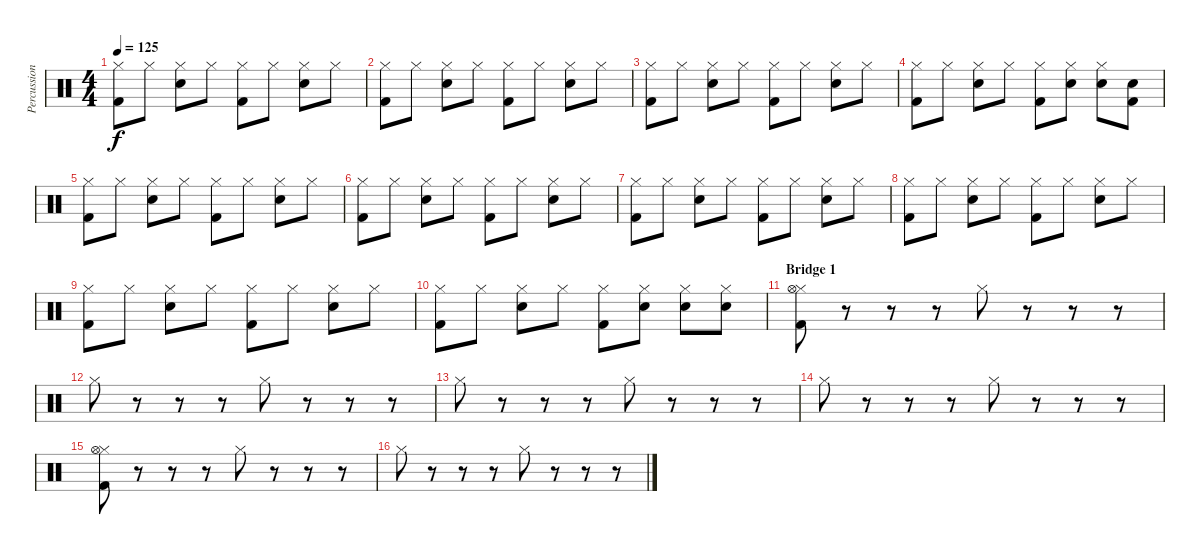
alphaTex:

\track ("Percussion" "Percussion") {instrument percussion}
\staff {score}
\articulation defaults
\ts (4 4)
\tempo 125
\clef neutral
\ks c
("Kick (hit) 2" "Hi-Hat (closed)").8{dy f} "Hi-Hat (closed)".8 ("Electric Snare (hit)" "Hi-Hat (closed)").8 "Hi-Hat (closed)".8 ("Kick (hit) 2" "Hi-Hat (closed)").8 "Hi-Hat (closed)".8 ("Electric Snare (hit)" "Hi-Hat (closed)").8 "Hi-Hat (closed)".8 |
("Kick (hit) 2" "Hi-Hat (closed)").8 "Hi-Hat (closed)".8 ("Electric Snare (hit)" "Hi-Hat (closed)").8 "Hi-Hat (closed)".8 ("Kick (hit) 2" "Hi-Hat (closed)").8 "Hi-Hat (closed)".8 ("Electric Snare (hit)" "Hi-Hat (closed)").8 "Hi-Hat (closed)".8 |
("Kick (hit) 2" "Hi-Hat (closed)").8 "Hi-Hat (closed)".8 ("Electric Snare (hit)" "Hi-Hat (closed)").8 "Hi-Hat (closed)".8 ("Kick (hit) 2" "Hi-Hat (closed)").8 "Hi-Hat (closed)".8 ("Electric Snare (hit)" "Hi-Hat (closed)").8 "Hi-Hat (closed)".8 |
("Kick (hit) 2" "Hi-Hat (closed)").8 "Hi-Hat (closed)".8 ("Electric Snare (hit)" "Hi-Hat (closed)").8 "Hi-Hat (closed)".8 ("Kick (hit) 2" "Hi-Hat (closed)").8 ("Electric Snare (hit)" "Hi-Hat (closed)").8 ("Electric Snare (hit)" "Hi-Hat (closed)").8 ("Electric Snare (hit)" "Kick (hit) 2").8 |
("Kick (hit) 2" "Hi-Hat (closed)").8 "Hi-Hat (closed)".8 ("Electric Snare (hit)" "Hi-Hat (closed)").8 "Hi-Hat (closed)".8 ("Kick (hit) 2" "Hi-Hat (closed)").8 "Hi-Hat (closed)".8 ("Electric Snare (hit)" "Hi-Hat (closed)").8 "Hi-Hat (closed)".8 |
("Kick (hit) 2" "Hi-Hat (closed)").8 "Hi-Hat (closed)".8 ("Electric Snare (hit)" "Hi-Hat (closed)").8 "Hi-Hat (closed)".8 ("Kick (hit) 2" "Hi-Hat (closed)").8 "Hi-Hat (closed)".8 ("Electric Snare (hit)" "Hi-Hat (closed)").8 "Hi-Hat (closed)".8 |
("Kick (hit) 2" "Hi-Hat (closed)").8 "Hi-Hat (closed)".8 ("Electric Snare (hit)" "Hi-Hat (closed)").8 "Hi-Hat (closed)".8 ("Kick (hit) 2" "Hi-Hat (closed)").8 "Hi-Hat (closed)".8 ("Electric Snare (hit)" "Hi-Hat (closed)").8 "Hi-Hat (closed)".8 |
("Kick (hit) 2" "Hi-Hat (closed)").8 "Hi-Hat (closed)".8 ("Electric Snare (hit)" "Hi-Hat (closed)").8 "Hi-Hat (closed)".8 ("Kick (hit) 2" "Hi-Hat (closed)").8 "Hi-Hat (closed)".8 ("Electric Snare (hit)" "Hi-Hat (closed)").8 "Hi-Hat (closed)".8 |
("Kick (hit) 2" "Hi-Hat (closed)").8 "Hi-Hat (closed)".8 ("Electric Snare (hit)" "Hi-Hat (closed)").8 "Hi-Hat (closed)".8 ("Kick (hit) 2" "Hi-Hat (closed)").8 "Hi-Hat (closed)".8 ("Electric Snare (hit)" "Hi-Hat (closed)").8 "Hi-Hat (closed)".8 |
("Kick (hit) 2" "Hi-Hat (closed)").8 "Hi-Hat (closed)".8 ("Electric Snare (hit)" "Hi-Hat (closed)").8 "Hi-Hat (closed)".8 ("Kick (hit) 2" "Hi-Hat (closed)").8 ("Electric Snare (hit)" "Hi-Hat (closed)").8 ("Electric Snare (hit)" "Hi-Hat (closed)").8 ("Electric Snare (hit)" "Hi-Hat (closed)").8 |
\section ("" "Bridge 1")
("Kick (hit) 2" "Hi-Hat (closed)" "Hi-Hat (open)").8 r.8 r.8 r.8 "Hi-Hat (closed)".8 r.8 r.8 r.8 |
"Hi-Hat (closed)".8 r.8 r.8 r.8 "Hi-Hat (closed)".8 r.8 r.8 r.8 |
"Hi-Hat (closed)".8 r.8 r.8 r.8 "Hi-Hat (closed)".8 r.8 r.8 r.8 |
"Hi-Hat (closed)".8 r.8 r.8 r.8 "Hi-Hat (closed)".8 r.8 r.8 r.8 |
("Kick (hit) 2" "Hi-Hat (closed)" "Hi-Hat (open)").8 r.8 r.8 r.8 "Hi-Hat (closed)".8 r.8 r.8 r.8 |
"Hi-Hat (closed)".8 r.8 r.8 r.8 "Hi-Hat (closed)".8 r.8 r.8 r.8
